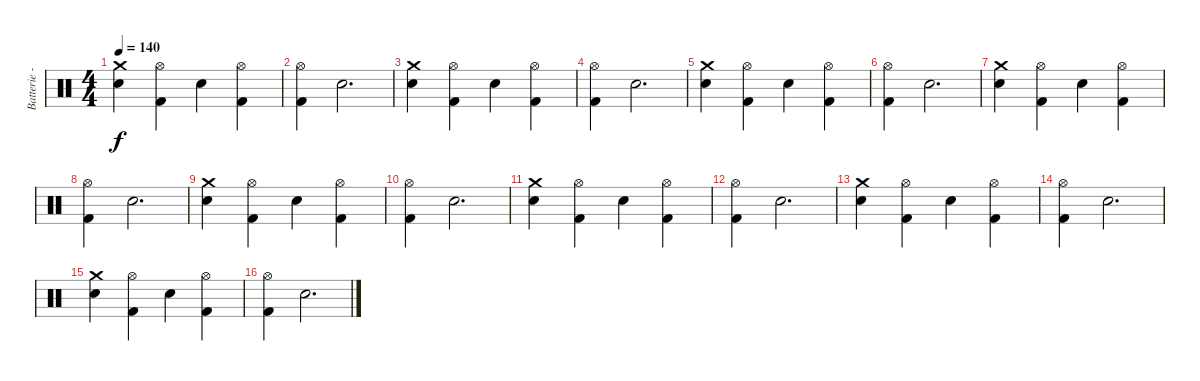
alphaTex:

\track ("Batterie - Anders Johansson" "Batterie -") {instrument percussion}
\staff {score}
\articulation defaults
\ts (4 4)
\tempo 140
\clef neutral
\ks c
("Crash medium (hit)" "Electric Snare (hit)").4{dy f} ("Hi-Hat (open)" "Kick (hit) 2").4 "Electric Snare (hit)".4 ("Hi-Hat (open)" "Kick (hit) 2").4 |
("Hi-Hat (open)" "Kick (hit) 2").4 "Electric Snare (hit)".2{d} |
("Crash medium (hit)" "Electric Snare (hit)").4 ("Hi-Hat (open)" "Kick (hit) 2").4 "Electric Snare (hit)".4 ("Hi-Hat (open)" "Kick (hit) 2").4 |
("Hi-Hat (open)" "Kick (hit) 2").4 "Electric Snare (hit)".2{d} |
("Crash medium (hit)" "Electric Snare (hit)").4 ("Hi-Hat (open)" "Kick (hit) 2").4 "Electric Snare (hit)".4 ("Hi-Hat (open)" "Kick (hit) 2").4 |
("Hi-Hat (open)" "Kick (hit) 2").4 "Electric Snare (hit)".2{d} |
("Crash medium (hit)" "Electric Snare (hit)").4 ("Hi-Hat (open)" "Kick (hit) 2").4 "Electric Snare (hit)".4 ("Hi-Hat (open)" "Kick (hit) 2").4 |
("Hi-Hat (open)" "Kick (hit) 2").4 "Electric Snare (hit)".2{d} |
("Crash medium (hit)" "Electric Snare (hit)").4 ("Hi-Hat (open)" "Kick (hit) 2").4 "Electric Snare (hit)".4 ("Hi-Hat (open)" "Kick (hit) 2").4 |
("Hi-Hat (open)" "Kick (hit) 2").4 "Electric Snare (hit)".2{d} |
("Crash medium (hit)" "Electric Snare (hit)").4 ("Hi-Hat (open)" "Kick (hit) 2").4 "Electric Snare (hit)".4 ("Hi-Hat (open)" "Kick (hit) 2").4 |
("Hi-Hat (open)" "Kick (hit) 2").4 "Electric Snare (hit)".2{d} |
("Crash medium (hit)" "Electric Snare (hit)").4 ("Hi-Hat (open)" "Kick (hit) 2").4 "Electric Snare (hit)".4 ("Hi-Hat (open)" "Kick (hit) 2").4 |
("Hi-Hat (open)" "Kick (hit) 2").4 "Electric Snare (hit)".2{d} |
("Crash medium (hit)" "Electric Snare (hit)").4 ("Hi-Hat (open)" "Kick (hit) 2").4 "Electric Snare (hit)".4 ("Hi-Hat (open)" "Kick (hit) 2").4 |
("Hi-Hat (open)" "Kick (hit) 2").4 "Electric Snare (hit)".2{d}
